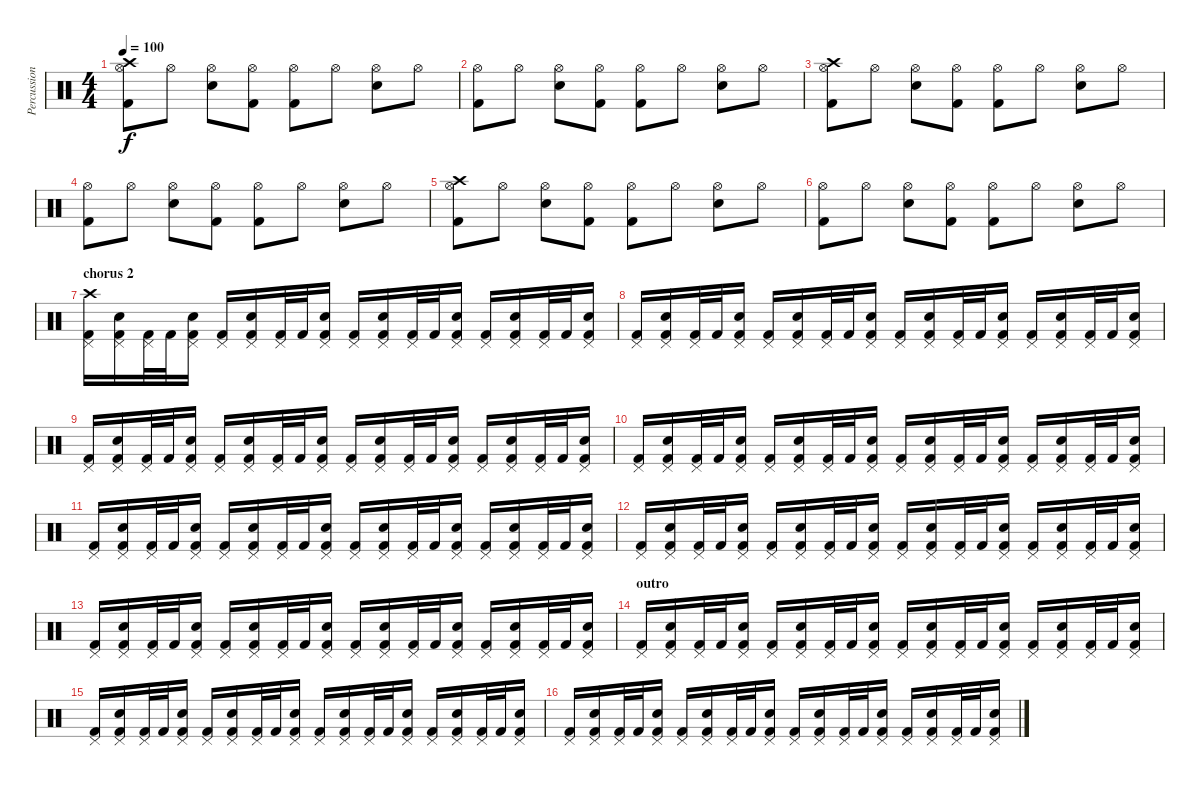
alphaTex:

\track ("Percussion" "Percussion") {instrument percussion}
\staff {score}
\articulation defaults
\ts (4 4)
\tempo 100
\clef neutral
\ks c
("Crash high (hit)" "Hi-Hat (open)" "Kick (hit) 2").8{dy f} "Hi-Hat (open)".8 ("Hi-Hat (open)" "Electric Snare (hit)").8 ("Hi-Hat (open)" "Kick (hit) 2").8 ("Hi-Hat (open)" "Kick (hit) 2").8 "Hi-Hat (open)".8 ("Hi-Hat (open)" "Electric Snare (hit)").8 "Hi-Hat (open)".8 |
("Hi-Hat (open)" "Kick (hit) 2").8 "Hi-Hat (open)".8 ("Hi-Hat (open)" "Electric Snare (hit)").8 ("Hi-Hat (open)" "Kick (hit) 2").8 ("Hi-Hat (open)" "Kick (hit) 2").8 "Hi-Hat (open)".8 ("Hi-Hat (open)" "Electric Snare (hit)").8 "Hi-Hat (open)".8 |
("Crash high (hit)" "Hi-Hat (open)" "Kick (hit) 2").8 "Hi-Hat (open)".8 ("Hi-Hat (open)" "Electric Snare (hit)").8 ("Hi-Hat (open)" "Kick (hit) 2").8 ("Hi-Hat (open)" "Kick (hit) 2").8 "Hi-Hat (open)".8 ("Hi-Hat (open)" "Electric Snare (hit)").8 "Hi-Hat (open)".8 |
("Hi-Hat (open)" "Kick (hit) 2").8 "Hi-Hat (open)".8 ("Hi-Hat (open)" "Electric Snare (hit)").8 ("Hi-Hat (open)" "Kick (hit) 2").8 ("Hi-Hat (open)" "Kick (hit) 2").8 "Hi-Hat (open)".8 ("Hi-Hat (open)" "Electric Snare (hit)").8 "Hi-Hat (open)".8 |
("Crash high (hit)" "Hi-Hat (open)" "Kick (hit) 2").8 "Hi-Hat (open)".8 ("Hi-Hat (open)" "Electric Snare (hit)").8 ("Hi-Hat (open)" "Kick (hit) 2").8 ("Hi-Hat (open)" "Kick (hit) 2").8 "Hi-Hat (open)".8 ("Hi-Hat (open)" "Electric Snare (hit)").8 "Hi-Hat (open)".8 |
("Hi-Hat (open)" "Kick (hit) 2").8 "Hi-Hat (open)".8 ("Hi-Hat (open)" "Electric Snare (hit)").8 ("Hi-Hat (open)" "Kick (hit) 2").8 ("Hi-Hat (open)" "Kick (hit) 2").8 "Hi-Hat (open)".8 ("Hi-Hat (open)" "Electric Snare (hit)").8 "Hi-Hat (open)".8 |
\section ("" "chorus 2")
("Crash high (hit)" "Pedal Hi-Hat (hit)" "Kick (hit) 2").16 ("Pedal Hi-Hat (hit)" "Electric Snare (hit)" "Kick (hit) 2").16 ("Pedal Hi-Hat (hit)" "Kick (hit) 2").32 "Kick (hit) 2".32 ("Pedal Hi-Hat (hit)" "Electric Snare (hit)" "Kick (hit) 2").16 ("Pedal Hi-Hat (hit)" "Kick (hit) 2").16 ("Pedal Hi-Hat (hit)" "Electric Snare (hit)" "Kick (hit) 2").16 ("Pedal Hi-Hat (hit)" "Kick (hit) 2").32 "Kick (hit) 2".32 ("Pedal Hi-Hat (hit)" "Electric Snare (hit)" "Kick (hit) 2").16 ("Pedal Hi-Hat (hit)" "Kick (hit) 2").16 ("Pedal Hi-Hat (hit)" "Electric Snare (hit)" "Kick (hit) 2").16 ("Pedal Hi-Hat (hit)" "Kick (hit) 2").32 "Kick (hit) 2".32 ("Pedal Hi-Hat (hit)" "Electric Snare (hit)" "Kick (hit) 2").16 ("Pedal Hi-Hat (hit)" "Kick (hit) 2").16 ("Pedal Hi-Hat (hit)" "Electric Snare (hit)" "Kick (hit) 2").16 ("Pedal Hi-Hat (hit)" "Kick (hit) 2").32 "Kick (hit) 2".32 ("Pedal Hi-Hat (hit)" "Electric Snare (hit)" "Kick (hit) 2").16 |
("Pedal Hi-Hat (hit)" "Kick (hit) 2").16 ("Pedal Hi-Hat (hit)" "Electric Snare (hit)" "Kick (hit) 2").16 ("Pedal Hi-Hat (hit)" "Kick (hit) 2").32 "Kick (hit) 2".32 ("Pedal Hi-Hat (hit)" "Electric Snare (hit)" "Kick (hit) 2").16 ("Pedal Hi-Hat (hit)" "Kick (hit) 2").16 ("Pedal Hi-Hat (hit)" "Electric Snare (hit)" "Kick (hit) 2").16 ("Pedal Hi-Hat (hit)" "Kick (hit) 2").32 "Kick (hit) 2".32 ("Pedal Hi-Hat (hit)" "Electric Snare (hit)" "Kick (hit) 2").16 ("Pedal Hi-Hat (hit)" "Kick (hit) 2").16 ("Pedal Hi-Hat (hit)" "Electric Snare (hit)" "Kick (hit) 2").16 ("Pedal Hi-Hat (hit)" "Kick (hit) 2").32 "Kick (hit) 2".32 ("Pedal Hi-Hat (hit)" "Electric Snare (hit)" "Kick (hit) 2").16 ("Pedal Hi-Hat (hit)" "Kick (hit) 2").16 ("Pedal Hi-Hat (hit)" "Electric Snare (hit)" "Kick (hit) 2").16 ("Pedal Hi-Hat (hit)" "Kick (hit) 2").32 "Kick (hit) 2".32 ("Pedal Hi-Hat (hit)" "Electric Snare (hit)" "Kick (hit) 2").16 |
("Pedal Hi-Hat (hit)" "Kick (hit) 2").16 ("Pedal Hi-Hat (hit)" "Electric Snare (hit)" "Kick (hit) 2").16 ("Pedal Hi-Hat (hit)" "Kick (hit) 2").32 "Kick (hit) 2".32 ("Pedal Hi-Hat (hit)" "Electric Snare (hit)" "Kick (hit) 2").16 ("Pedal Hi-Hat (hit)" "Kick (hit) 2").16 ("Pedal Hi-Hat (hit)" "Electric Snare (hit)" "Kick (hit) 2").16 ("Pedal Hi-Hat (hit)" "Kick (hit) 2").32 "Kick (hit) 2".32 ("Pedal Hi-Hat (hit)" "Electric Snare (hit)" "Kick (hit) 2").16 ("Pedal Hi-Hat (hit)" "Kick (hit) 2").16 ("Pedal Hi-Hat (hit)" "Electric Snare (hit)" "Kick (hit) 2").16 ("Pedal Hi-Hat (hit)" "Kick (hit) 2").32 "Kick (hit) 2".32 ("Pedal Hi-Hat (hit)" "Electric Snare (hit)" "Kick (hit) 2").16 ("Pedal Hi-Hat (hit)" "Kick (hit) 2").16 ("Pedal Hi-Hat (hit)" "Electric Snare (hit)" "Kick (hit) 2").16 ("Pedal Hi-Hat (hit)" "Kick (hit) 2").32 "Kick (hit) 2".32 ("Pedal Hi-Hat (hit)" "Electric Snare (hit)" "Kick (hit) 2").16 |
("Pedal Hi-Hat (hit)" "Kick (hit) 2").16 ("Pedal Hi-Hat (hit)" "Electric Snare (hit)" "Kick (hit) 2").16 ("Pedal Hi-Hat (hit)" "Kick (hit) 2").32 "Kick (hit) 2".32 ("Pedal Hi-Hat (hit)" "Electric Snare (hit)" "Kick (hit) 2").16 ("Pedal Hi-Hat (hit)" "Kick (hit) 2").16 ("Pedal Hi-Hat (hit)" "Electric Snare (hit)" "Kick (hit) 2").16 ("Pedal Hi-Hat (hit)" "Kick (hit) 2").32 "Kick (hit) 2".32 ("Pedal Hi-Hat (hit)" "Electric Snare (hit)" "Kick (hit) 2").16 ("Pedal Hi-Hat (hit)" "Kick (hit) 2").16 ("Pedal Hi-Hat (hit)" "Electric Snare (hit)" "Kick (hit) 2").16 ("Pedal Hi-Hat (hit)" "Kick (hit) 2").32 "Kick (hit) 2".32 ("Pedal Hi-Hat (hit)" "Electric Snare (hit)" "Kick (hit) 2").16 ("Pedal Hi-Hat (hit)" "Kick (hit) 2").16 ("Pedal Hi-Hat (hit)" "Electric Snare (hit)" "Kick (hit) 2").16 ("Pedal Hi-Hat (hit)" "Kick (hit) 2").32 "Kick (hit) 2".32 ("Pedal Hi-Hat (hit)" "Electric Snare (hit)" "Kick (hit) 2").16 |
("Pedal Hi-Hat (hit)" "Kick (hit) 2").16 ("Pedal Hi-Hat (hit)" "Electric Snare (hit)" "Kick (hit) 2").16 ("Pedal Hi-Hat (hit)" "Kick (hit) 2").32 "Kick (hit) 2".32 ("Pedal Hi-Hat (hit)" "Electric Snare (hit)" "Kick (hit) 2").16 ("Pedal Hi-Hat (hit)" "Kick (hit) 2").16 ("Pedal Hi-Hat (hit)" "Electric Snare (hit)" "Kick (hit) 2").16 ("Pedal Hi-Hat (hit)" "Kick (hit) 2").32 "Kick (hit) 2".32 ("Pedal Hi-Hat (hit)" "Electric Snare (hit)" "Kick (hit) 2").16 ("Pedal Hi-Hat (hit)" "Kick (hit) 2").16 ("Pedal Hi-Hat (hit)" "Electric Snare (hit)" "Kick (hit) 2").16 ("Pedal Hi-Hat (hit)" "Kick (hit) 2").32 "Kick (hit) 2".32 ("Pedal Hi-Hat (hit)" "Electric Snare (hit)" "Kick (hit) 2").16 ("Pedal Hi-Hat (hit)" "Kick (hit) 2").16 ("Pedal Hi-Hat (hit)" "Electric Snare (hit)" "Kick (hit) 2").16 ("Pedal Hi-Hat (hit)" "Kick (hit) 2").32 "Kick (hit) 2".32 ("Pedal Hi-Hat (hit)" "Electric Snare (hit)" "Kick (hit) 2").16 |
("Pedal Hi-Hat (hit)" "Kick (hit) 2").16 ("Pedal Hi-Hat (hit)" "Electric Snare (hit)" "Kick (hit) 2").16 ("Pedal Hi-Hat (hit)" "Kick (hit) 2").32 "Kick (hit) 2".32 ("Pedal Hi-Hat (hit)" "Electric Snare (hit)" "Kick (hit) 2").16 ("Pedal Hi-Hat (hit)" "Kick (hit) 2").16 ("Pedal Hi-Hat (hit)" "Electric Snare (hit)" "Kick (hit) 2").16 ("Pedal Hi-Hat (hit)" "Kick (hit) 2").32 "Kick (hit) 2".32 ("Pedal Hi-Hat (hit)" "Electric Snare (hit)" "Kick (hit) 2").16 ("Pedal Hi-Hat (hit)" "Kick (hit) 2").16 ("Pedal Hi-Hat (hit)" "Electric Snare (hit)" "Kick (hit) 2").16 ("Pedal Hi-Hat (hit)" "Kick (hit) 2").32 "Kick (hit) 2".32 ("Pedal Hi-Hat (hit)" "Electric Snare (hit)" "Kick (hit) 2").16 ("Pedal Hi-Hat (hit)" "Kick (hit) 2").16 ("Pedal Hi-Hat (hit)" "Electric Snare (hit)" "Kick (hit) 2").16 ("Pedal Hi-Hat (hit)" "Kick (hit) 2").32 "Kick (hit) 2".32 ("Pedal Hi-Hat (hit)" "Electric Snare (hit)" "Kick (hit) 2").16 |
("Pedal Hi-Hat (hit)" "Kick (hit) 2").16 ("Pedal Hi-Hat (hit)" "Electric Snare (hit)" "Kick (hit) 2").16 ("Pedal Hi-Hat (hit)" "Kick (hit) 2").32 "Kick (hit) 2".32 ("Pedal Hi-Hat (hit)" "Electric Snare (hit)" "Kick (hit) 2").16 ("Pedal Hi-Hat (hit)" "Kick (hit) 2").16 ("Pedal Hi-Hat (hit)" "Electric Snare (hit)" "Kick (hit) 2").16 ("Pedal Hi-Hat (hit)" "Kick (hit) 2").32 "Kick (hit) 2".32 ("Pedal Hi-Hat (hit)" "Electric Snare (hit)" "Kick (hit) 2").16 ("Pedal Hi-Hat (hit)" "Kick (hit) 2").16 ("Pedal Hi-Hat (hit)" "Electric Snare (hit)" "Kick (hit) 2").16 ("Pedal Hi-Hat (hit)" "Kick (hit) 2").32 "Kick (hit) 2".32 ("Pedal Hi-Hat (hit)" "Electric Snare (hit)" "Kick (hit) 2").16 ("Pedal Hi-Hat (hit)" "Kick (hit) 2").16 ("Pedal Hi-Hat (hit)" "Electric Snare (hit)" "Kick (hit) 2").16 ("Pedal Hi-Hat (hit)" "Kick (hit) 2").32 "Kick (hit) 2".32 ("Pedal Hi-Hat (hit)" "Electric Snare (hit)" "Kick (hit) 2").16 |
\section ("" "outro")
("Pedal Hi-Hat (hit)" "Kick (hit) 2").16 ("Pedal Hi-Hat (hit)" "Electric Snare (hit)" "Kick (hit) 2").16 ("Pedal Hi-Hat (hit)" "Kick (hit) 2").32 "Kick (hit) 2".32 ("Pedal Hi-Hat (hit)" "Electric Snare (hit)" "Kick (hit) 2").16 ("Pedal Hi-Hat (hit)" "Kick (hit) 2").16 ("Pedal Hi-Hat (hit)" "Electric Snare (hit)" "Kick (hit) 2").16 ("Pedal Hi-Hat (hit)" "Kick (hit) 2").32 "Kick (hit) 2".32 ("Pedal Hi-Hat (hit)" "Electric Snare (hit)" "Kick (hit) 2").16 ("Pedal Hi-Hat (hit)" "Kick (hit) 2").16 ("Pedal Hi-Hat (hit)" "Electric Snare (hit)" "Kick (hit) 2").16 ("Pedal Hi-Hat (hit)" "Kick (hit) 2").32 "Kick (hit) 2".32 ("Pedal Hi-Hat (hit)" "Electric Snare (hit)" "Kick (hit) 2").16 ("Pedal Hi-Hat (hit)" "Kick (hit) 2").16 ("Pedal Hi-Hat (hit)" "Electric Snare (hit)" "Kick (hit) 2").16 ("Pedal Hi-Hat (hit)" "Kick (hit) 2").32 "Kick (hit) 2".32 ("Pedal Hi-Hat (hit)" "Electric Snare (hit)" "Kick (hit) 2").16 |
("Pedal Hi-Hat (hit)" "Kick (hit) 2").16 ("Pedal Hi-Hat (hit)" "Electric Snare (hit)" "Kick (hit) 2").16 ("Pedal Hi-Hat (hit)" "Kick (hit) 2").32 "Kick (hit) 2".32 ("Pedal Hi-Hat (hit)" "Electric Snare (hit)" "Kick (hit) 2").16 ("Pedal Hi-Hat (hit)" "Kick (hit) 2").16 ("Pedal Hi-Hat (hit)" "Electric Snare (hit)" "Kick (hit) 2").16 ("Pedal Hi-Hat (hit)" "Kick (hit) 2").32 "Kick (hit) 2".32 ("Pedal Hi-Hat (hit)" "Electric Snare (hit)" "Kick (hit) 2").16 ("Pedal Hi-Hat (hit)" "Kick (hit) 2").16 ("Pedal Hi-Hat (hit)" "Electric Snare (hit)" "Kick (hit) 2").16 ("Pedal Hi-Hat (hit)" "Kick (hit) 2").32 "Kick (hit) 2".32 ("Pedal Hi-Hat (hit)" "Electric Snare (hit)" "Kick (hit) 2").16 ("Pedal Hi-Hat (hit)" "Kick (hit) 2").16 ("Pedal Hi-Hat (hit)" "Electric Snare (hit)" "Kick (hit) 2").16 ("Pedal Hi-Hat (hit)" "Kick (hit) 2").32 "Kick (hit) 2".32 ("Pedal Hi-Hat (hit)" "Electric Snare (hit)" "Kick (hit) 2").16 |
("Pedal Hi-Hat (hit)" "Kick (hit) 2").16 ("Pedal Hi-Hat (hit)" "Electric Snare (hit)" "Kick (hit) 2").16 ("Pedal Hi-Hat (hit)" "Kick (hit) 2").32 "Kick (hit) 2".32 ("Pedal Hi-Hat (hit)" "Electric Snare (hit)" "Kick (hit) 2").16 ("Pedal Hi-Hat (hit)" "Kick (hit) 2").16 ("Pedal Hi-Hat (hit)" "Electric Snare (hit)" "Kick (hit) 2").16 ("Pedal Hi-Hat (hit)" "Kick (hit) 2").32 "Kick (hit) 2".32 ("Pedal Hi-Hat (hit)" "Electric Snare (hit)" "Kick (hit) 2").16 ("Pedal Hi-Hat (hit)" "Kick (hit) 2").16 ("Pedal Hi-Hat (hit)" "Electric Snare (hit)" "Kick (hit) 2").16 ("Pedal Hi-Hat (hit)" "Kick (hit) 2").32 "Kick (hit) 2".32 ("Pedal Hi-Hat (hit)" "Electric Snare (hit)" "Kick (hit) 2").16 ("Pedal Hi-Hat (hit)" "Kick (hit) 2").16 ("Pedal Hi-Hat (hit)" "Electric Snare (hit)" "Kick (hit) 2").16 ("Pedal Hi-Hat (hit)" "Kick (hit) 2").32 "Kick (hit) 2".32 ("Pedal Hi-Hat (hit)" "Electric Snare (hit)" "Kick (hit) 2").16
